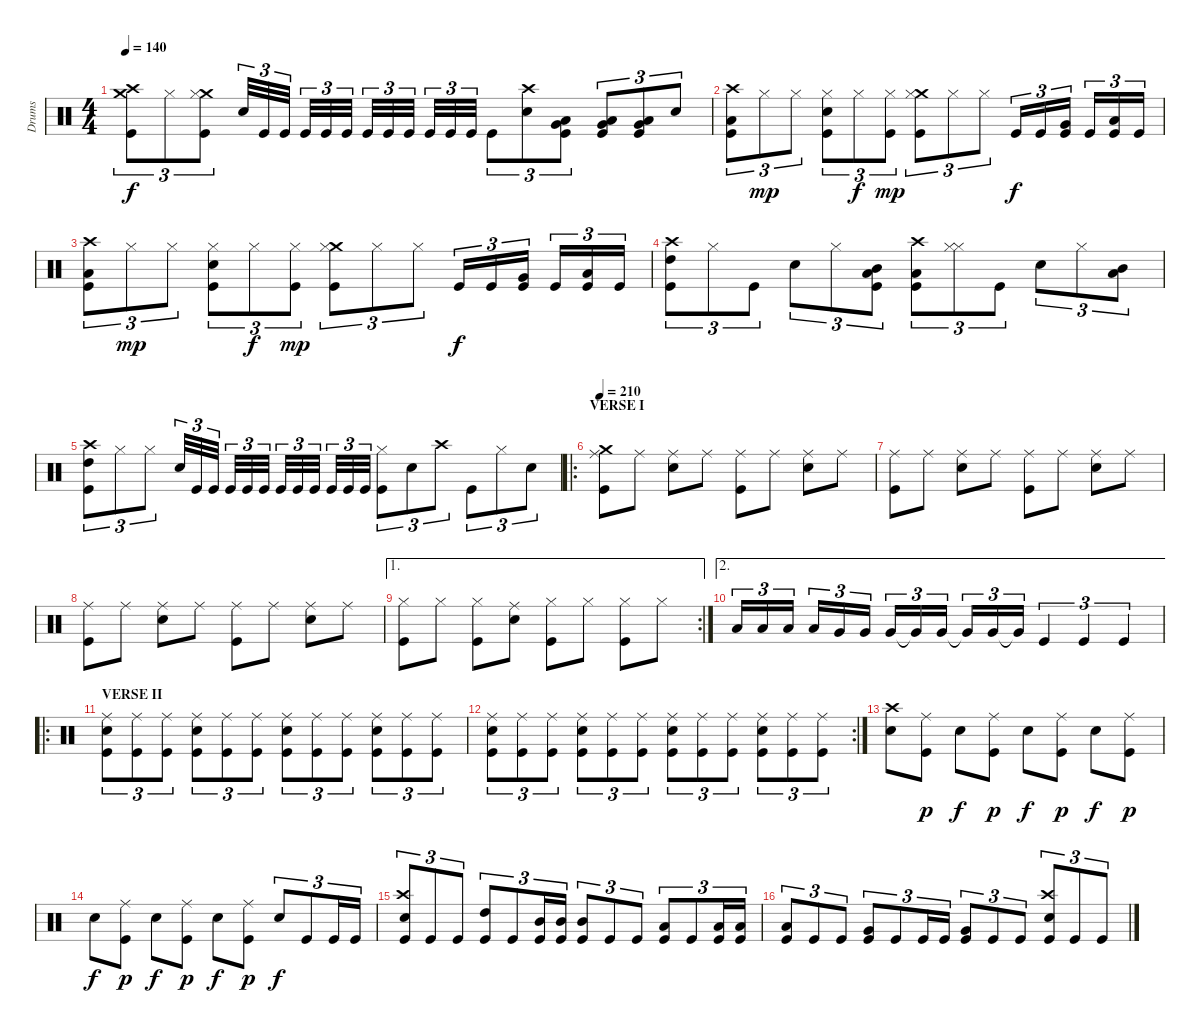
\track ("Drums" "Drums") {instrument percussion}
\staff {score}
\articulation defaults
\ts (4 4)
\tempo 140
\clef neutral
\ks c
("Crash medium (hit)" "Kick (hit)" "Crash high (hit)").8{tu (3 2) dy f} "Hi-Hat (closed)".8{tu (3 2)} ("Crash medium (hit)" "Kick (hit)" "Hi-Hat (closed)").8{tu (3 2)} "Snare (hit) 2".32{tu (3 2)} "Kick (hit)".32{tu (3 2)} "Kick (hit)".32{tu (3 2)} "Kick (hit)".32{tu (3 2)} "Kick (hit)".32{tu (3 2)} "Kick (hit)".32{tu (3 2)} "Kick (hit)".32{tu (3 2)} "Kick (hit)".32{tu (3 2)} "Kick (hit)".32{tu (3 2)} "Kick (hit)".32{tu (3 2)} "Kick (hit)".32{tu (3 2)} "Kick (hit)".32{tu (3 2)} "Kick (hit)".8{tu (3 2)} ("Crash high (hit)" "Snare (hit) 2").8{tu (3 2)} ("Low Tom (hit)" "Very Low Tom (hit)" "Kick (hit)").8{tu (3 2)} ("Low Tom (hit)" "Very Low Tom (hit)" "Kick (hit)").8{tu (3 2)} ("Very Low Tom (hit)" "Low Floor Tom (hit)" "Kick (hit)").8{tu (3 2)} "Snare (hit) 2".8{tu (3 2)} |
("Low Floor Tom (hit)" "Crash high (hit)" "Kick (hit)").8{tu (3 2)} "Hi-Hat (closed)".8{tu (3 2) dy mp} "Hi-Hat (closed)".8{tu (3 2)} ("Snare (hit) 2" "Hi-Hat (closed)" "Kick (hit)").8{tu (3 2)} "Hi-Hat (closed)".8{tu (3 2) dy f} ("Hi-Hat (closed)" "Kick (hit)").8{tu (3 2) dy mp} ("Crash medium (hit)" "Hi-Hat (closed)" "Kick (hit)").8{tu (3 2)} "Hi-Hat (closed)".8{tu (3 2)} "Hi-Hat (closed)".8{tu (3 2)} "Kick (hit)".16{tu (3 2) dy f} "Kick (hit)".16{tu (3 2)} ("Very Low Tom (hit)" "Kick (hit)").16{tu (3 2)} "Kick (hit)".16{tu (3 2)} ("Low Floor Tom (hit)" "Kick (hit)").16{tu (3 2)} "Kick (hit)".16{tu (3 2)} |
("Low Floor Tom (hit)" "Crash high (hit)" "Kick (hit)").8{tu (3 2)} "Hi-Hat (closed)".8{tu (3 2) dy mp} "Hi-Hat (closed)".8{tu (3 2)} ("Snare (hit) 2" "Hi-Hat (closed)" "Kick (hit)").8{tu (3 2)} "Hi-Hat (closed)".8{tu (3 2) dy f} ("Hi-Hat (closed)" "Kick (hit)").8{tu (3 2) dy mp} ("Crash medium (hit)" "Hi-Hat (closed)" "Kick (hit)").8{tu (3 2)} "Hi-Hat (closed)".8{tu (3 2)} "Hi-Hat (closed)".8{tu (3 2)} "Kick (hit)".16{tu (3 2) dy f} "Kick (hit)".16{tu (3 2)} ("Very Low Tom (hit)" "Kick (hit)").16{tu (3 2)} "Kick (hit)".16{tu (3 2)} ("Low Floor Tom (hit)" "Kick (hit)").16{tu (3 2)} "Kick (hit)".16{tu (3 2)} |
("High Tom (hit)" "Crash high (hit)" "Kick (hit)").8{tu (3 2)} "Hi-Hat (closed)".8{tu (3 2)} "Kick (hit)".8{tu (3 2)} "Snare (hit) 2".8{tu (3 2)} "Hi-Hat (closed)".8{tu (3 2)} ("Mid Tom (hit)" "Low Tom (hit)" "Kick (hit)").8{tu (3 2)} ("Low Tom (hit)" "Crash high (hit)" "Kick (hit)").8{tu (3 2)} ("Hi-Hat (closed)" "Hi-Hat (closed)").8{tu (3 2)} "Kick (hit)".8{tu (3 2)} "Snare (hit) 2".8{tu (3 2)} "Hi-Hat (closed)".8{tu (3 2)} ("Mid Tom (hit)" "Low Tom (hit)").8{tu (3 2)} |
("High Tom (hit)" "Crash high (hit)" "Kick (hit)").8{tu (3 2)} "Hi-Hat (closed)".8{tu (3 2)} "Hi-Hat (closed)".8{tu (3 2)} "Snare (hit) 2".32{tu (3 2)} "Kick (hit)".32{tu (3 2)} "Kick (hit)".32{tu (3 2)} "Kick (hit)".32{tu (3 2)} "Kick (hit)".32{tu (3 2)} "Kick (hit)".32{tu (3 2)} "Kick (hit)".32{tu (3 2)} "Kick (hit)".32{tu (3 2)} "Kick (hit)".32{tu (3 2)} "Kick (hit)".32{tu (3 2)} "Kick (hit)".32{tu (3 2)} "Kick (hit)".32{tu (3 2)} ("Hi-Hat (closed)" "Kick (hit)").8{tu (3 2)} "Snare (hit) 2".8{tu (3 2)} "Crash high (hit)".8{tu (3 2)} "Kick (hit)".8{tu (3 2)} "Hi-Hat (closed)".8{tu (3 2)} "Snare (hit) 2".8{tu (3 2)} |
\ro
\section ("" "VERSE I")
\tempo 210
("Crash medium (hit)" "Ride (middle)" "Kick (hit)").8 "Ride (middle)".8 ("Ride (middle)" "Snare (hit) 2").8 "Ride (middle)".8 ("Ride (middle)" "Kick (hit)").8 "Ride (middle)".8 ("Ride (middle)" "Snare (hit) 2").8 "Ride (middle)".8 |
("Ride (middle)" "Kick (hit)").8 "Ride (middle)".8 ("Ride (middle)" "Snare (hit) 2").8 "Ride (middle)".8 ("Ride (middle)" "Kick (hit)").8 "Ride (middle)".8 ("Ride (middle)" "Snare (hit) 2").8 "Ride (middle)".8 |
("Ride (middle)" "Kick (hit)").8 "Ride (middle)".8 ("Ride (middle)" "Snare (hit) 2").8 "Ride (middle)".8 ("Ride (middle)" "Kick (hit)").8 "Ride (middle)".8 ("Ride (middle)" "Snare (hit) 2").8 "Ride (middle)".8 |
\ae 1
\rc 2
("Hi-Hat (closed)" "Kick (hit)").8 "Hi-Hat (closed)".8 ("Hi-Hat (closed)" "Kick (hit)").8 ("Snare (hit) 2" "Ride (middle)").8 ("Hi-Hat (closed)" "Kick (hit)").8 "Hi-Hat (closed)".8 ("Hi-Hat (closed)" "Kick (hit)").8 "Hi-Hat (closed)".8 |
\ae 2 "Low Tom (hit)".16{tu (3 2)} "Low Tom (hit)".16{tu (3 2)} "Low Tom (hit)".16{tu (3 2)} "Low Tom (hit)".16{tu (3 2)} "Very Low Tom (hit)".16{tu (3 2)} "Very Low Tom (hit)".16{tu (3 2)} "Very Low Tom (hit)".16{tu (3 2)} "Very Low Tom (hit)"{t}.16{tu (3 2)} "Very Low Tom (hit)".16{tu (3 2)} "Very Low Tom (hit)"{t}.16{tu (3 2)} "Very Low Tom (hit)".16{tu (3 2)} "Very Low Tom (hit)"{t}.16{tu (3 2)} "Kick (hit)".4{tu (3 2)} "Kick (hit)".4{tu (3 2)} "Kick (hit)".4{tu (3 2)}
|
\ro
\section ("" "VERSE II")
("Snare (hit) 2" "Ride (middle)" "Kick (hit)").8{tu (3 2)} ("Ride (middle)" "Kick (hit)").8{tu (3 2)} ("Ride (middle)" "Kick (hit)").8{tu (3 2)} ("Snare (hit) 2" "Ride (middle)" "Kick (hit)").8{tu (3 2)} ("Ride (middle)" "Kick (hit)").8{tu (3 2)} ("Ride (middle)" "Kick (hit)").8{tu (3 2)} ("Snare (hit) 2" "Ride (middle)" "Kick (hit)").8{tu (3 2)} ("Ride (middle)" "Kick (hit)").8{tu (3 2)} ("Ride (middle)" "Kick (hit)").8{tu (3 2)} ("Snare (hit) 2" "Ride (middle)" "Kick (hit)").8{tu (3 2)} ("Ride (middle)" "Kick (hit)").8{tu (3 2)} ("Ride (middle)" "Kick (hit)").8{tu (3 2)} |
\rc 2
("Snare (hit) 2" "Ride (middle)" "Kick (hit)").8{tu (3 2)} ("Ride (middle)" "Kick (hit)").8{tu (3 2)} ("Ride (middle)" "Kick (hit)").8{tu (3 2)} ("Snare (hit) 2" "Ride (middle)" "Kick (hit)").8{tu (3 2)} ("Ride (middle)" "Kick (hit)").8{tu (3 2)} ("Ride (middle)" "Kick (hit)").8{tu (3 2)} ("Snare (hit) 2" "Ride (middle)" "Kick (hit)").8{tu (3 2)} ("Ride (middle)" "Kick (hit)").8{tu (3 2)} ("Ride (middle)" "Kick (hit)").8{tu (3 2)} ("Snare (hit) 2" "Ride (middle)" "Kick (hit)").8{tu (3 2)} ("Ride (middle)" "Kick (hit)").8{tu (3 2)} ("Ride (middle)" "Kick (hit)").8{tu (3 2)} |
("Crash high (hit)" "Snare (hit) 2").8 ("Ride (middle)" "Kick (hit)").8{dy p} "Snare (hit) 2".8{dy f} ("Ride (middle)" "Kick (hit)").8{dy p} "Snare (hit) 2".8{dy f} ("Ride (middle)" "Kick (hit)").8{dy p} "Snare (hit) 2".8{dy f} ("Ride (middle)" "Kick (hit)").8{dy p} |
"Snare (hit) 2".8{dy f} ("Ride (middle)" "Kick (hit)").8{dy p} "Snare (hit) 2".8{dy f} ("Ride (middle)" "Kick (hit)").8{dy p} "Snare (hit) 2".8{dy f} ("Ride (middle)" "Kick (hit)").8{dy p} "Snare (hit) 2".8{tu (3 2) dy f} "Kick (hit)".8{tu (3 2)} "Kick (hit)".16{tu (3 2)} "Kick (hit)".16{tu (3 2)} |
("Snare (hit) 2" "Crash high (hit)" "Kick (hit)").8{tu (3 2)} "Kick (hit)".8{tu (3 2)} "Kick (hit)".8{tu (3 2)} ("High Tom (hit)" "Kick (hit)").8{tu (3 2)} "Kick (hit)".8{tu (3 2)} ("Mid Tom (hit)" "Kick (hit)").16{tu (3 2)} ("Mid Tom (hit)" "Kick (hit)").16{tu (3 2)} ("Mid Tom (hit)" "Kick (hit)").8{tu (3 2)} "Kick (hit)".8{tu (3 2)} "Kick (hit)".8{tu (3 2)} ("Low Tom (hit)" "Kick (hit)").8{tu (3 2)} "Kick (hit)".8{tu (3 2)} ("Low Tom (hit)" "Kick (hit)").16{tu (3 2)} ("Low Tom (hit)" "Kick (hit)").16{tu (3 2)} |
("Low Tom (hit)" "Kick (hit)").8{tu (3 2)} "Kick (hit)".8{tu (3 2)} "Kick (hit)".8{tu (3 2)} ("Very Low Tom (hit)" "Kick (hit)").8{tu (3 2)} "Kick (hit)".8{tu (3 2)} "Kick (hit)".16{tu (3 2)} "Kick (hit)".16{tu (3 2)} ("Very Low Tom (hit)" "Kick (hit)").8{tu (3 2)} "Kick (hit)".8{tu (3 2)} "Kick (hit)".8{tu (3 2)} ("Snare (hit) 2" "Crash high (hit)" "Kick (hit)").8{tu (3 2)} "Kick (hit)".8{tu (3 2)} "Kick (hit)".8{tu (3 2)}
